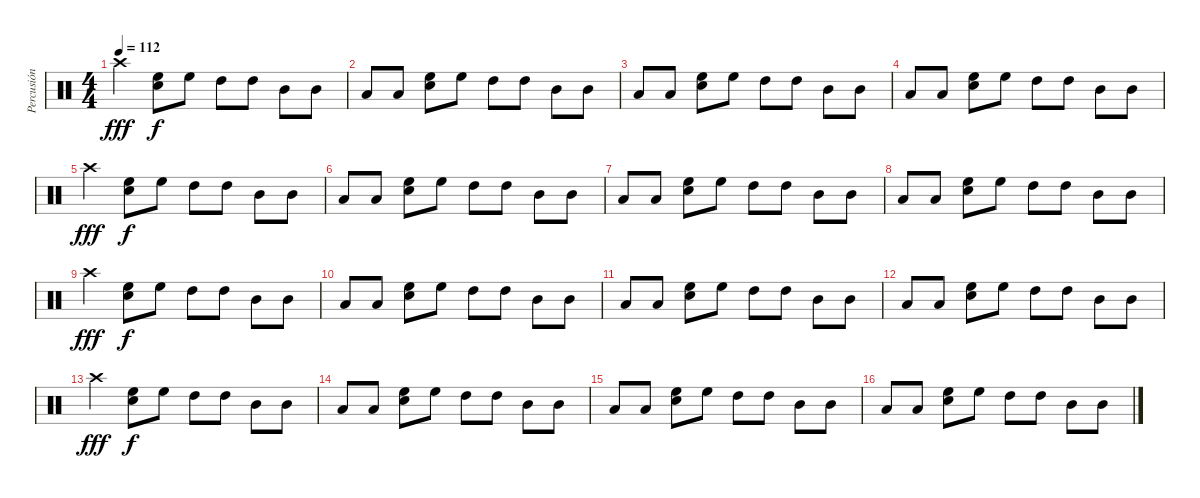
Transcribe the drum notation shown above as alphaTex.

\track ("Percusión" "Percusión") {instrument percussion}
\staff {score}
\articulation defaults
\ts (4 4)
\tempo 112
\clef neutral
\ks c "Crash high (hit)".4{dy fff}
("High Floor Tom (hit)" "Electric Snare (hit)").8{dy f} "High Floor Tom (hit)".8 "High Tom (hit)".8 "High Tom (hit)".8 "Mid Tom (hit)".8 "Mid Tom (hit)".8 |
"Low Tom (hit)".8 "Low Tom (hit)".8 ("High Floor Tom (hit)" "Electric Snare (hit)").8 "High Floor Tom (hit)".8 "High Tom (hit)".8 "High Tom (hit)".8 "Mid Tom (hit)".8 "Mid Tom (hit)".8 |
"Low Tom (hit)".8 "Low Tom (hit)".8 ("High Floor Tom (hit)" "Electric Snare (hit)").8 "High Floor Tom (hit)".8 "High Tom (hit)".8 "High Tom (hit)".8 "Mid Tom (hit)".8 "Mid Tom (hit)".8 |
"Low Tom (hit)".8 "Low Tom (hit)".8 ("High Floor Tom (hit)" "Electric Snare (hit)").8 "High Floor Tom (hit)".8 "High Tom (hit)".8 "High Tom (hit)".8 "Mid Tom (hit)".8 "Mid Tom (hit)".8 |
"Crash high (hit)".4{dy fff} ("High Floor Tom (hit)" "Electric Snare (hit)").8{dy f} "High Floor Tom (hit)".8 "High Tom (hit)".8 "High Tom (hit)".8 "Mid Tom (hit)".8 "Mid Tom (hit)".8 |
"Low Tom (hit)".8 "Low Tom (hit)".8 ("High Floor Tom (hit)" "Electric Snare (hit)").8 "High Floor Tom (hit)".8 "High Tom (hit)".8 "High Tom (hit)".8 "Mid Tom (hit)".8 "Mid Tom (hit)".8 |
"Low Tom (hit)".8 "Low Tom (hit)".8 ("High Floor Tom (hit)" "Electric Snare (hit)").8 "High Floor Tom (hit)".8 "High Tom (hit)".8 "High Tom (hit)".8 "Mid Tom (hit)".8 "Mid Tom (hit)".8 |
"Low Tom (hit)".8 "Low Tom (hit)".8 ("High Floor Tom (hit)" "Electric Snare (hit)").8 "High Floor Tom (hit)".8 "High Tom (hit)".8 "High Tom (hit)".8 "Mid Tom (hit)".8 "Mid Tom (hit)".8 |
"Crash high (hit)".4{dy fff} ("High Floor Tom (hit)" "Electric Snare (hit)").8{dy f} "High Floor Tom (hit)".8 "High Tom (hit)".8 "High Tom (hit)".8 "Mid Tom (hit)".8 "Mid Tom (hit)".8 |
"Low Tom (hit)".8 "Low Tom (hit)".8 ("High Floor Tom (hit)" "Electric Snare (hit)").8 "High Floor Tom (hit)".8 "High Tom (hit)".8 "High Tom (hit)".8 "Mid Tom (hit)".8 "Mid Tom (hit)".8 |
"Low Tom (hit)".8 "Low Tom (hit)".8 ("High Floor Tom (hit)" "Electric Snare (hit)").8 "High Floor Tom (hit)".8 "High Tom (hit)".8 "High Tom (hit)".8 "Mid Tom (hit)".8 "Mid Tom (hit)".8 |
"Low Tom (hit)".8 "Low Tom (hit)".8 ("High Floor Tom (hit)" "Electric Snare (hit)").8 "High Floor Tom (hit)".8 "High Tom (hit)".8 "High Tom (hit)".8 "Mid Tom (hit)".8 "Mid Tom (hit)".8 |
"Crash high (hit)".4{dy fff} ("High Floor Tom (hit)" "Electric Snare (hit)").8{dy f} "High Floor Tom (hit)".8 "High Tom (hit)".8 "High Tom (hit)".8 "Mid Tom (hit)".8 "Mid Tom (hit)".8 |
"Low Tom (hit)".8 "Low Tom (hit)".8 ("High Floor Tom (hit)" "Electric Snare (hit)").8 "High Floor Tom (hit)".8 "High Tom (hit)".8 "High Tom (hit)".8 "Mid Tom (hit)".8 "Mid Tom (hit)".8 |
"Low Tom (hit)".8 "Low Tom (hit)".8 ("High Floor Tom (hit)" "Electric Snare (hit)").8 "High Floor Tom (hit)".8 "High Tom (hit)".8 "High Tom (hit)".8 "Mid Tom (hit)".8 "Mid Tom (hit)".8 |
"Low Tom (hit)".8 "Low Tom (hit)".8 ("High Floor Tom (hit)" "Electric Snare (hit)").8 "High Floor Tom (hit)".8 "High Tom (hit)".8 "High Tom (hit)".8 "Mid Tom (hit)".8 "Mid Tom (hit)".8
